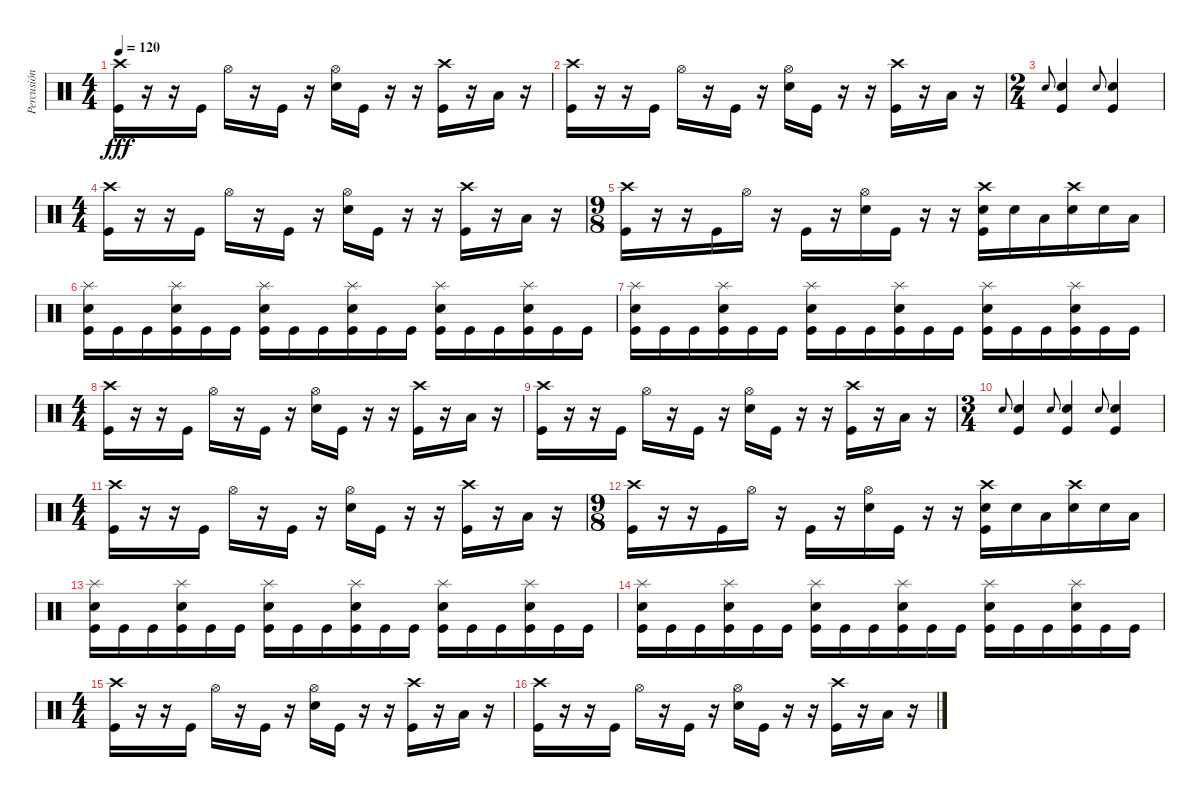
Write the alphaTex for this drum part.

\track ("Percusión" "Percusión") {instrument percussion}
\staff {score}
\articulation defaults
\ts (4 4)
\tempo 120
\clef neutral
\ks c
("Kick (hit)" "Crash high (hit)").16{dy fff} r.16 r.16 "Kick (hit)".16 "Hi-Hat (open)".16 r.16 "Kick (hit)".16 r.16 ("Hi-Hat (open)" "Snare (hit) 2").16 "Kick (hit)".16 r.16 r.16 ("Crash high (hit)" "Kick (hit)").16 r.16 "Low Floor Tom (hit)".16 r.16 |
("Kick (hit)" "Crash high (hit)").16 r.16 r.16 "Kick (hit)".16 "Hi-Hat (open)".16 r.16 "Kick (hit)".16 r.16 ("Hi-Hat (open)" "Snare (hit) 2").16 "Kick (hit)".16 r.16 r.16 ("Crash high (hit)" "Kick (hit)").16 r.16 "Low Floor Tom (hit)".16 r.16 |
\ts (2 4)
"Snare (hit) 2".8{gr onbeat} ("Snare (hit) 2" "Kick (hit)").4 "Snare (hit) 2".8{gr onbeat} ("Snare (hit) 2" "Kick (hit)").4 |
\ts (4 4)
("Kick (hit)" "Crash high (hit)").16 r.16 r.16 "Kick (hit)".16 "Hi-Hat (open)".16 r.16 "Kick (hit)".16 r.16 ("Hi-Hat (open)" "Snare (hit) 2").16 "Kick (hit)".16 r.16 r.16 ("Crash high (hit)" "Kick (hit)").16 r.16 "Low Floor Tom (hit)".16 r.16 |
\ts (9 8)
("Kick (hit)" "Crash high (hit)").16 r.16 r.16 "Kick (hit)".16 "Hi-Hat (open)".16 r.16 "Kick (hit)".16 r.16 ("Hi-Hat (open)" "Snare (hit) 2").16 "Kick (hit)".16 r.16 r.16 ("Crash high (hit)" "Snare (hit) 2" "Kick (hit)").16 "Snare (hit) 2".16 "Low Floor Tom (hit)".16 ("Crash high (hit)" "Snare (hit) 2").16 "Snare (hit) 2".16 "Low Floor Tom (hit)".16 |
("Splash (hit)" "Snare (hit) 2" "Kick (hit)").16 "Kick (hit)".16 "Kick (hit)".16 ("Splash (hit)" "Snare (hit) 2" "Kick (hit)").16 "Kick (hit)".16 "Kick (hit)".16 ("Splash (hit)" "Snare (hit) 2" "Kick (hit)").16 "Kick (hit)".16 "Kick (hit)".16 ("Splash (hit)" "Snare (hit) 2" "Kick (hit)").16 "Kick (hit)".16 "Kick (hit)".16 ("Splash (hit)" "Snare (hit) 2" "Kick (hit)").16 "Kick (hit)".16 "Kick (hit)".16 ("Splash (hit)" "Snare (hit) 2" "Kick (hit)").16 "Kick (hit)".16 "Kick (hit)".16 |
("Splash (hit)" "Snare (hit) 2" "Kick (hit)").16 "Kick (hit)".16 "Kick (hit)".16 ("Splash (hit)" "Snare (hit) 2" "Kick (hit)").16 "Kick (hit)".16 "Kick (hit)".16 ("Splash (hit)" "Snare (hit) 2" "Kick (hit)").16 "Kick (hit)".16 "Kick (hit)".16 ("Splash (hit)" "Snare (hit) 2" "Kick (hit)").16 "Kick (hit)".16 "Kick (hit)".16 ("Splash (hit)" "Snare (hit) 2" "Kick (hit)").16 "Kick (hit)".16 "Kick (hit)".16 ("Splash (hit)" "Snare (hit) 2" "Kick (hit)").16 "Kick (hit)".16 "Kick (hit)".16 |
\ts (4 4)
("Kick (hit)" "Crash high (hit)").16 r.16 r.16 "Kick (hit)".16 "Hi-Hat (open)".16 r.16 "Kick (hit)".16 r.16 ("Hi-Hat (open)" "Snare (hit) 2").16 "Kick (hit)".16 r.16 r.16 ("Crash high (hit)" "Kick (hit)").16 r.16 "Low Floor Tom (hit)".16 r.16 |
("Kick (hit)" "Crash high (hit)").16 r.16 r.16 "Kick (hit)".16 "Hi-Hat (open)".16 r.16 "Kick (hit)".16 r.16 ("Hi-Hat (open)" "Snare (hit) 2").16 "Kick (hit)".16 r.16 r.16 ("Crash high (hit)" "Kick (hit)").16 r.16 "Low Floor Tom (hit)".16 r.16 |
\ts (3 4)
"Snare (hit) 2".8{gr onbeat} ("Snare (hit) 2" "Kick (hit)").4 "Snare (hit) 2".8{gr onbeat} ("Snare (hit) 2" "Kick (hit)").4 "Snare (hit) 2".8{gr onbeat} ("Snare (hit) 2" "Kick (hit)").4 |
\ts (4 4)
("Kick (hit)" "Crash high (hit)").16 r.16 r.16 "Kick (hit)".16 "Hi-Hat (open)".16 r.16 "Kick (hit)".16 r.16 ("Hi-Hat (open)" "Snare (hit) 2").16 "Kick (hit)".16 r.16 r.16 ("Crash high (hit)" "Kick (hit)").16 r.16 "Low Floor Tom (hit)".16 r.16 |
\ts (9 8)
("Kick (hit)" "Crash high (hit)").16 r.16 r.16 "Kick (hit)".16 "Hi-Hat (open)".16 r.16 "Kick (hit)".16 r.16 ("Hi-Hat (open)" "Snare (hit) 2").16 "Kick (hit)".16 r.16 r.16 ("Crash high (hit)" "Snare (hit) 2" "Kick (hit)").16 "Snare (hit) 2".16 "Low Floor Tom (hit)".16 ("Crash high (hit)" "Snare (hit) 2").16 "Snare (hit) 2".16 "Low Floor Tom (hit)".16 |
("Splash (hit)" "Snare (hit) 2" "Kick (hit)").16 "Kick (hit)".16 "Kick (hit)".16 ("Splash (hit)" "Snare (hit) 2" "Kick (hit)").16 "Kick (hit)".16 "Kick (hit)".16 ("Splash (hit)" "Snare (hit) 2" "Kick (hit)").16 "Kick (hit)".16 "Kick (hit)".16 ("Splash (hit)" "Snare (hit) 2" "Kick (hit)").16 "Kick (hit)".16 "Kick (hit)".16 ("Splash (hit)" "Snare (hit) 2" "Kick (hit)").16 "Kick (hit)".16 "Kick (hit)".16 ("Splash (hit)" "Snare (hit) 2" "Kick (hit)").16 "Kick (hit)".16 "Kick (hit)".16 |
("Splash (hit)" "Snare (hit) 2" "Kick (hit)").16 "Kick (hit)".16 "Kick (hit)".16 ("Splash (hit)" "Snare (hit) 2" "Kick (hit)").16 "Kick (hit)".16 "Kick (hit)".16 ("Splash (hit)" "Snare (hit) 2" "Kick (hit)").16 "Kick (hit)".16 "Kick (hit)".16 ("Splash (hit)" "Snare (hit) 2" "Kick (hit)").16 "Kick (hit)".16 "Kick (hit)".16 ("Splash (hit)" "Snare (hit) 2" "Kick (hit)").16 "Kick (hit)".16 "Kick (hit)".16 ("Splash (hit)" "Snare (hit) 2" "Kick (hit)").16 "Kick (hit)".16 "Kick (hit)".16 |
\ts (4 4)
("Kick (hit)" "Crash high (hit)").16 r.16 r.16 "Kick (hit)".16 "Hi-Hat (open)".16 r.16 "Kick (hit)".16 r.16 ("Hi-Hat (open)" "Snare (hit) 2").16 "Kick (hit)".16 r.16 r.16 ("Crash high (hit)" "Kick (hit)").16 r.16 "Low Floor Tom (hit)".16 r.16 |
("Kick (hit)" "Crash high (hit)").16 r.16 r.16 "Kick (hit)".16 "Hi-Hat (open)".16 r.16 "Kick (hit)".16 r.16 ("Hi-Hat (open)" "Snare (hit) 2").16 "Kick (hit)".16 r.16 r.16 ("Crash high (hit)" "Kick (hit)").16 r.16 "Low Floor Tom (hit)".16 r.16
